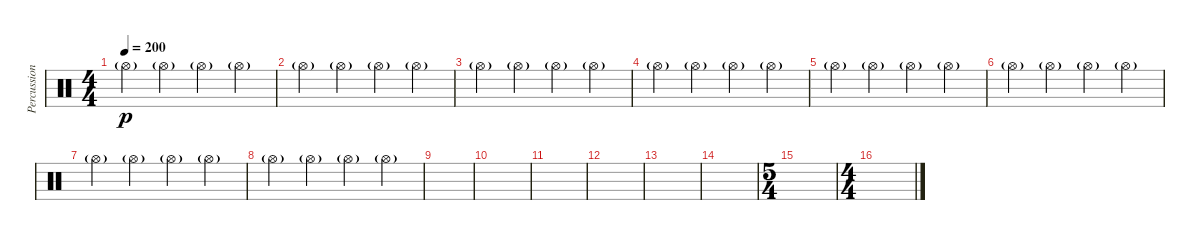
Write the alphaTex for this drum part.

\track ("Percussion 2" "Percussion") {instrument percussion}
\staff {score}
\articulation defaults
\ts (4 4)
\tempo 200
\clef neutral
\ks c "Hi-Hat (open)"{g}.4{dy p} "Hi-Hat (open)"{g}.4 "Hi-Hat (open)"{g}.4 "Hi-Hat (open)"{g}.4
|
"Hi-Hat (open)"{g}.4 "Hi-Hat (open)"{g}.4 "Hi-Hat (open)"{g}.4 "Hi-Hat (open)"{g}.4 |
"Hi-Hat (open)"{g}.4 "Hi-Hat (open)"{g}.4 "Hi-Hat (open)"{g}.4 "Hi-Hat (open)"{g}.4 |
"Hi-Hat (open)"{g}.4 "Hi-Hat (open)"{g}.4 "Hi-Hat (open)"{g}.4 "Hi-Hat (open)"{g}.4 |
"Hi-Hat (open)"{g}.4 "Hi-Hat (open)"{g}.4 "Hi-Hat (open)"{g}.4 "Hi-Hat (open)"{g}.4 |
"Hi-Hat (open)"{g}.4 "Hi-Hat (open)"{g}.4 "Hi-Hat (open)"{g}.4 "Hi-Hat (open)"{g}.4 |
"Hi-Hat (open)"{g}.4 "Hi-Hat (open)"{g}.4 "Hi-Hat (open)"{g}.4 "Hi-Hat (open)"{g}.4 |
"Hi-Hat (open)"{g}.4 "Hi-Hat (open)"{g}.4 "Hi-Hat (open)"{g}.4 "Hi-Hat (open)"{g}.4 |
|
|
|
|
|
|
\ts (5 4)
|
\ts (4 4)
